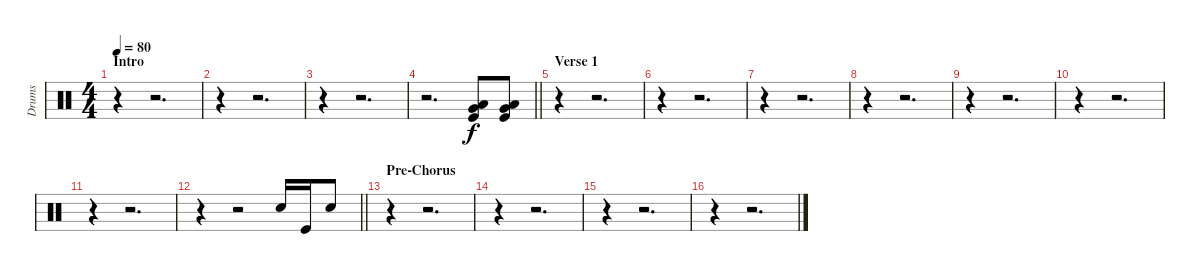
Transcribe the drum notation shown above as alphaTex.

\track ("Drums" "Drums") {instrument percussion}
\staff {score}
\articulation defaults
\ts (4 4)
\section ("" "Intro")
\tempo 80
\clef neutral
\ks c
r.4{dy f} r.2{d} |
r.4 r.2{d} |
r.4 r.2{d} |
\barLineRight lightlight
r.2{d} ("Low Floor Tom (hit)" "Kick (hit)" "Very Low Tom (hit)").8 ("Low Floor Tom (hit)" "Kick (hit)" "Very Low Tom (hit)").8 |
\section ("" "Verse 1")
r.4 r.2{d} |
r.4 r.2{d} |
r.4 r.2{d} |
r.4 r.2{d} |
r.4 r.2{d} |
r.4 r.2{d} |
r.4 r.2{d} |
\barLineRight lightlight
r.4 r.2 "Snare (hit) 2".16 "Kick (hit)".16 "Snare (hit) 2".8 |
\section ("" "Pre-Chorus")
r.4 r.2{d} |
r.4 r.2{d} |
r.4 r.2{d} |
r.4 r.2{d}
